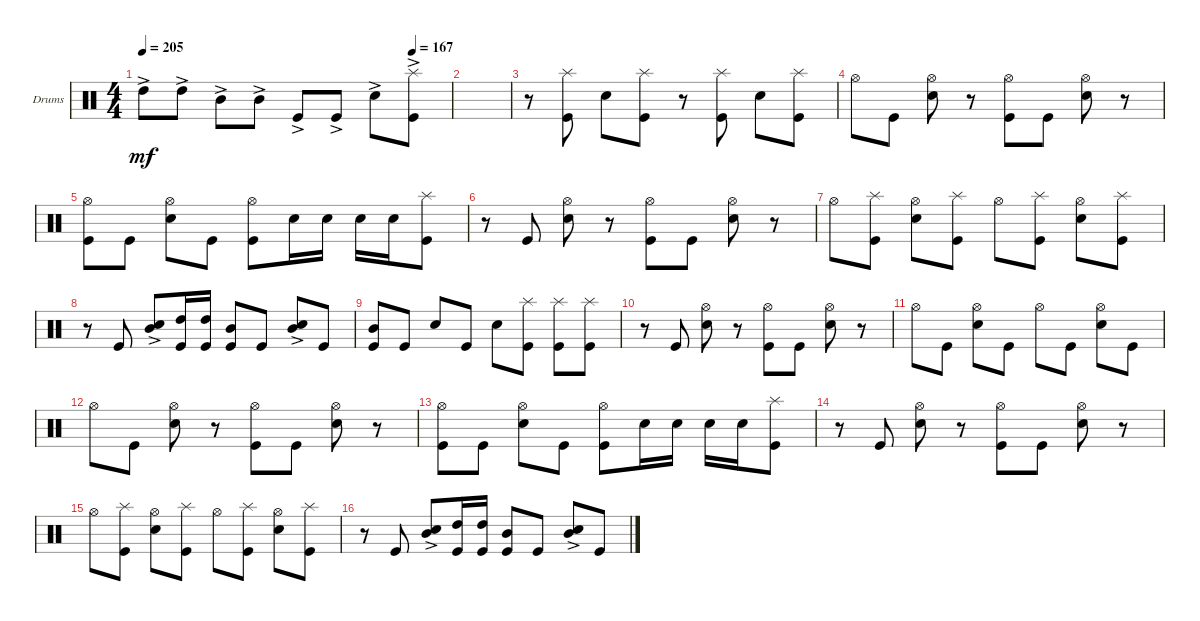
\bracketExtendMode groupsimilarinstruments
\firstSystemTrackNameOrientation horizontal
\otherSystemsTrackNameOrientation horizontal
\track ("Drumkit" "Drums") {instrument percussion}
\staff {score}
\articulation defaults
\ts (4 4)
\tempo 205
\tempo (167 0.875)
\clef neutral
\ks c "High Tom (hit)"{ac}.8{dy mf} "High Tom (hit)"{ac}.8 "Mid Tom (hit)"{ac}.8 "Mid Tom (hit)"{ac}.8 "Kick (hit)"{ac}.8 "Kick (hit)"{ac}.8 "Snare (hit) 2"{ac}.8
("Kick (hit)"{ac} "Splash (hit)"{ac}).8 |
|
r.8 ("Kick (hit)" "Splash (hit)").8 "Snare (hit) 2".8 ("Kick (hit)" "Splash (hit)").8 r.8 ("Kick (hit)" "Splash (hit)").8 "Snare (hit) 2".8 ("Kick (hit)" "Splash (hit)").8 |
"Hi-Hat (open)".8 "Kick (hit)".8 ("Snare (hit) 2" "Hi-Hat (open)").8 r.8 ("Kick (hit)" "Hi-Hat (open)").8 "Kick (hit)".8 ("Snare (hit) 2" "Hi-Hat (open)").8 r.8 |
("Kick (hit)" "Hi-Hat (open)").8 "Kick (hit)".8 ("Snare (hit) 2" "Hi-Hat (open)").8 "Kick (hit)".8 ("Kick (hit)" "Hi-Hat (open)").8 "Snare (hit) 2".16 "Snare (hit) 2".16 "Snare (hit) 2".16 "Snare (hit) 2".16 ("Kick (hit)" "Splash (hit)").8 |
r.8 "Kick (hit)".8 ("Snare (hit) 2" "Hi-Hat (open)").8 r.8 ("Kick (hit)" "Hi-Hat (open)").8 "Kick (hit)".8 ("Snare (hit) 2" "Hi-Hat (open)").8 r.8 |
"Hi-Hat (open)".8 ("Kick (hit)" "Splash (hit)").8 ("Snare (hit) 2" "Hi-Hat (open)").8 ("Kick (hit)" "Splash (hit)").8 "Hi-Hat (open)".8 ("Kick (hit)" "Splash (hit)").8 ("Snare (hit) 2" "Hi-Hat (open)").8 ("Kick (hit)" "Splash (hit)").8 |
r.8 "Kick (hit)".8 ("Snare (hit) 2"{ac} "Mid Tom (hit)").8 ("Kick (hit)" "High Tom (hit)").16 ("Kick (hit)" "High Tom (hit)").16 ("Kick (hit)" "Mid Tom (hit)").8 "Kick (hit)".8 ("Snare (hit) 2"{ac} "Mid Tom (hit)").8 "Kick (hit)".8 |
("Kick (hit)" "Mid Tom (hit)").8 "Kick (hit)".8 "Snare (hit) 2".8 "Kick (hit)".8 "Snare (hit) 2".8 ("Kick (hit)" "Splash (hit)").8 ("Kick (hit)" "Splash (hit)").8 ("Kick (hit)" "Splash (hit)").8 |
r.8 "Kick (hit)".8 ("Snare (hit) 2" "Hi-Hat (open)").8 r.8 ("Kick (hit)" "Hi-Hat (open)").8 "Kick (hit)".8 ("Snare (hit) 2" "Hi-Hat (open)").8 r.8 |
"Hi-Hat (open)".8 "Kick (hit)".8 ("Snare (hit) 2" "Hi-Hat (open)").8 "Kick (hit)".8 "Hi-Hat (open)".8 "Kick (hit)".8 ("Snare (hit) 2" "Hi-Hat (open)").8 "Kick (hit)".8 |
"Hi-Hat (open)".8 "Kick (hit)".8 ("Snare (hit) 2" "Hi-Hat (open)").8 r.8 ("Kick (hit)" "Hi-Hat (open)").8 "Kick (hit)".8 ("Snare (hit) 2" "Hi-Hat (open)").8 r.8 |
("Kick (hit)" "Hi-Hat (open)").8 "Kick (hit)".8 ("Snare (hit) 2" "Hi-Hat (open)").8 "Kick (hit)".8 ("Kick (hit)" "Hi-Hat (open)").8 "Snare (hit) 2".16 "Snare (hit) 2".16 "Snare (hit) 2".16 "Snare (hit) 2".16 ("Kick (hit)" "Splash (hit)").8 |
r.8 "Kick (hit)".8 ("Snare (hit) 2" "Hi-Hat (open)").8 r.8 ("Kick (hit)" "Hi-Hat (open)").8 "Kick (hit)".8 ("Snare (hit) 2" "Hi-Hat (open)").8 r.8 |
"Hi-Hat (open)".8 ("Kick (hit)" "Splash (hit)").8 ("Snare (hit) 2" "Hi-Hat (open)").8 ("Kick (hit)" "Splash (hit)").8 "Hi-Hat (open)".8 ("Kick (hit)" "Splash (hit)").8 ("Snare (hit) 2" "Hi-Hat (open)").8 ("Kick (hit)" "Splash (hit)").8 |
r.8 "Kick (hit)".8 ("Snare (hit) 2"{ac} "Mid Tom (hit)").8 ("Kick (hit)" "High Tom (hit)").16 ("Kick (hit)" "High Tom (hit)").16 ("Kick (hit)" "Mid Tom (hit)").8 "Kick (hit)".8 ("Snare (hit) 2"{ac} "Mid Tom (hit)").8 "Kick (hit)".8
